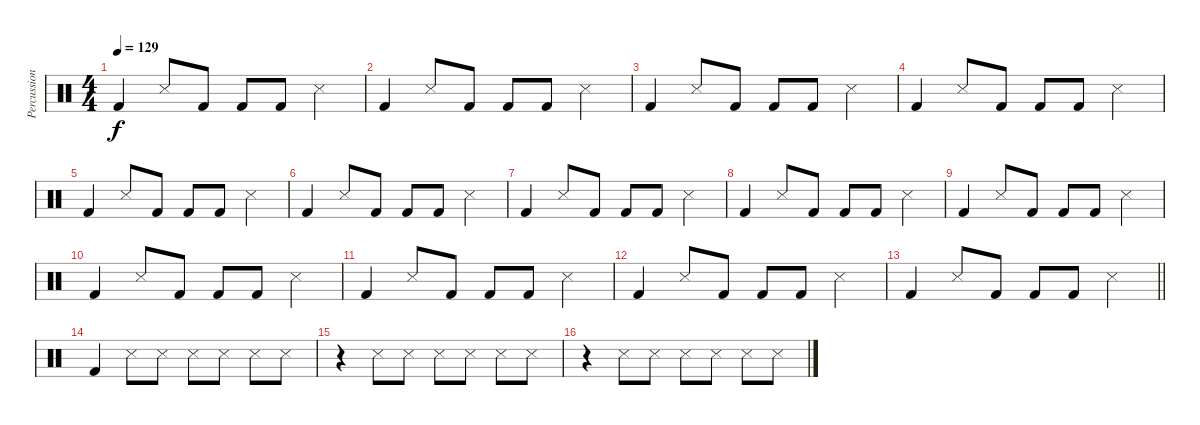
\track ("Percussion (Joel)" "Percussion") {instrument percussion}
\staff {score}
\articulation defaults
\ts (4 4)
\tempo 129
\clef neutral
\ks c "Kick (hit) 2".4{dy f} "Snare (side stick) 3".8 "Kick (hit) 2".8 "Kick (hit) 2".8 "Kick (hit) 2".8 "Snare (side stick) 3".4
|
"Kick (hit) 2".4 "Snare (side stick) 3".8 "Kick (hit) 2".8 "Kick (hit) 2".8 "Kick (hit) 2".8 "Snare (side stick) 3".4 |
"Kick (hit) 2".4 "Snare (side stick) 3".8 "Kick (hit) 2".8 "Kick (hit) 2".8 "Kick (hit) 2".8 "Snare (side stick) 3".4 |
"Kick (hit) 2".4 "Snare (side stick) 3".8 "Kick (hit) 2".8 "Kick (hit) 2".8 "Kick (hit) 2".8 "Snare (side stick) 3".4 |
"Kick (hit) 2".4 "Snare (side stick) 3".8 "Kick (hit) 2".8 "Kick (hit) 2".8 "Kick (hit) 2".8 "Snare (side stick) 3".4 |
"Kick (hit) 2".4 "Snare (side stick) 3".8 "Kick (hit) 2".8 "Kick (hit) 2".8 "Kick (hit) 2".8 "Snare (side stick) 3".4 |
"Kick (hit) 2".4 "Snare (side stick) 3".8 "Kick (hit) 2".8 "Kick (hit) 2".8 "Kick (hit) 2".8 "Snare (side stick) 3".4 |
"Kick (hit) 2".4 "Snare (side stick) 3".8 "Kick (hit) 2".8 "Kick (hit) 2".8 "Kick (hit) 2".8 "Snare (side stick) 3".4 |
"Kick (hit) 2".4 "Snare (side stick) 3".8 "Kick (hit) 2".8 "Kick (hit) 2".8 "Kick (hit) 2".8 "Snare (side stick) 3".4 |
"Kick (hit) 2".4 "Snare (side stick) 3".8 "Kick (hit) 2".8 "Kick (hit) 2".8 "Kick (hit) 2".8 "Snare (side stick) 3".4 |
"Kick (hit) 2".4 "Snare (side stick) 3".8 "Kick (hit) 2".8 "Kick (hit) 2".8 "Kick (hit) 2".8 "Snare (side stick) 3".4 |
"Kick (hit) 2".4 "Snare (side stick) 3".8 "Kick (hit) 2".8 "Kick (hit) 2".8 "Kick (hit) 2".8 "Snare (side stick) 3".4 |
\barLineRight lightlight "Kick (hit) 2".4 "Snare (side stick) 3".8 "Kick (hit) 2".8 "Kick (hit) 2".8 "Kick (hit) 2".8 "Snare (side stick) 3".4
|
"Kick (hit) 2".4 "Snare (side stick) 3".8 "Snare (side stick) 3".8 "Snare (side stick) 3".8 "Snare (side stick) 3".8 "Snare (side stick) 3".8 "Snare (side stick) 3".8 |
r.4 "Snare (side stick) 3".8 "Snare (side stick) 3".8 "Snare (side stick) 3".8 "Snare (side stick) 3".8 "Snare (side stick) 3".8 "Snare (side stick) 3".8 |
r.4 "Snare (side stick) 3".8 "Snare (side stick) 3".8 "Snare (side stick) 3".8 "Snare (side stick) 3".8 "Snare (side stick) 3".8 "Snare (side stick) 3".8
